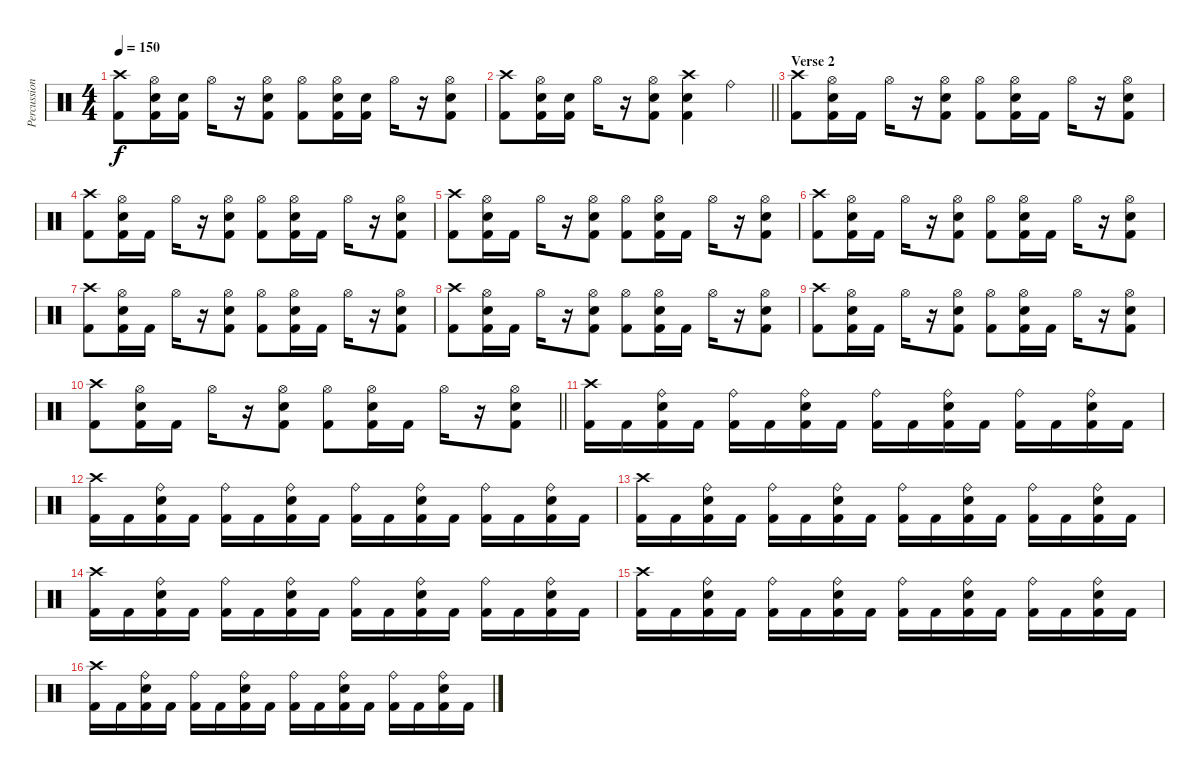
\track ("Percussion" "Percussion") {instrument percussion}
\staff {score}
\articulation defaults
\ts (4 4)
\section ("" "")
\tempo 150
\clef neutral
\ks c
("Crash high (hit)" "Kick (hit) 2").8{dy f} ("Hi-Hat (open)" "Snare (hit) 2" "Kick (hit) 2").16 ("Snare (hit) 2" "Kick (hit) 2").16 "Hi-Hat (open)".16 r.16 ("Hi-Hat (open)" "Snare (hit) 2" "Kick (hit) 2").8 ("Hi-Hat (open)" "Kick (hit) 2").8 ("Hi-Hat (open)" "Snare (hit) 2" "Kick (hit) 2").16 ("Snare (hit) 2" "Kick (hit) 2").16 "Hi-Hat (open)".16 r.16 ("Hi-Hat (open)" "Snare (hit) 2" "Kick (hit) 2").8 |
\barLineRight lightlight
("Crash high (hit)" "Kick (hit) 2").8 ("Hi-Hat (open)" "Snare (hit) 2" "Kick (hit) 2").16 ("Snare (hit) 2" "Kick (hit) 2").16 "Hi-Hat (open)".16 r.16 ("Hi-Hat (open)" "Snare (hit) 2" "Kick (hit) 2").8 ("Crash high (hit)" "Snare (hit) 2" "Kick (hit) 2").4 "Ride (bell)".4 |
\section ("" "Verse 2")
("Crash high (hit)" "Kick (hit) 2").8 ("Hi-Hat (open)" "Snare (hit) 2" "Kick (hit) 2").16 "Kick (hit) 2".16 "Hi-Hat (open)".16 r.16 ("Hi-Hat (open)" "Snare (hit) 2" "Kick (hit) 2").8 ("Hi-Hat (open)" "Kick (hit) 2").8 ("Hi-Hat (open)" "Snare (hit) 2" "Kick (hit) 2").16 "Kick (hit) 2".16 "Hi-Hat (open)".16 r.16 ("Hi-Hat (open)" "Snare (hit) 2" "Kick (hit) 2").8 |
("Crash high (hit)" "Kick (hit) 2").8 ("Hi-Hat (open)" "Snare (hit) 2" "Kick (hit) 2").16 "Kick (hit) 2".16 "Hi-Hat (open)".16 r.16 ("Hi-Hat (open)" "Snare (hit) 2" "Kick (hit) 2").8 ("Hi-Hat (open)" "Kick (hit) 2").8 ("Hi-Hat (open)" "Snare (hit) 2" "Kick (hit) 2").16 "Kick (hit) 2".16 "Hi-Hat (open)".16 r.16 ("Hi-Hat (open)" "Snare (hit) 2" "Kick (hit) 2").8 |
("Crash high (hit)" "Kick (hit) 2").8 ("Hi-Hat (open)" "Snare (hit) 2" "Kick (hit) 2").16 "Kick (hit) 2".16 "Hi-Hat (open)".16 r.16 ("Hi-Hat (open)" "Snare (hit) 2" "Kick (hit) 2").8 ("Hi-Hat (open)" "Kick (hit) 2").8 ("Hi-Hat (open)" "Snare (hit) 2" "Kick (hit) 2").16 "Kick (hit) 2".16 "Hi-Hat (open)".16 r.16 ("Hi-Hat (open)" "Snare (hit) 2" "Kick (hit) 2").8 |
("Crash high (hit)" "Kick (hit) 2").8 ("Hi-Hat (open)" "Snare (hit) 2" "Kick (hit) 2").16 "Kick (hit) 2".16 "Hi-Hat (open)".16 r.16 ("Hi-Hat (open)" "Snare (hit) 2" "Kick (hit) 2").8 ("Hi-Hat (open)" "Kick (hit) 2").8 ("Hi-Hat (open)" "Snare (hit) 2" "Kick (hit) 2").16 "Kick (hit) 2".16 "Hi-Hat (open)".16 r.16 ("Hi-Hat (open)" "Snare (hit) 2" "Kick (hit) 2").8 |
("Crash high (hit)" "Kick (hit) 2").8 ("Hi-Hat (open)" "Snare (hit) 2" "Kick (hit) 2").16 "Kick (hit) 2".16 "Hi-Hat (open)".16 r.16 ("Hi-Hat (open)" "Snare (hit) 2" "Kick (hit) 2").8 ("Hi-Hat (open)" "Kick (hit) 2").8 ("Hi-Hat (open)" "Snare (hit) 2" "Kick (hit) 2").16 "Kick (hit) 2".16 "Hi-Hat (open)".16 r.16 ("Hi-Hat (open)" "Snare (hit) 2" "Kick (hit) 2").8 |
("Crash high (hit)" "Kick (hit) 2").8 ("Hi-Hat (open)" "Snare (hit) 2" "Kick (hit) 2").16 "Kick (hit) 2".16 "Hi-Hat (open)".16 r.16 ("Hi-Hat (open)" "Snare (hit) 2" "Kick (hit) 2").8 ("Hi-Hat (open)" "Kick (hit) 2").8 ("Hi-Hat (open)" "Snare (hit) 2" "Kick (hit) 2").16 "Kick (hit) 2".16 "Hi-Hat (open)".16 r.16 ("Hi-Hat (open)" "Snare (hit) 2" "Kick (hit) 2").8 |
("Crash high (hit)" "Kick (hit) 2").8 ("Hi-Hat (open)" "Snare (hit) 2" "Kick (hit) 2").16 "Kick (hit) 2".16 "Hi-Hat (open)".16 r.16 ("Hi-Hat (open)" "Snare (hit) 2" "Kick (hit) 2").8 ("Hi-Hat (open)" "Kick (hit) 2").8 ("Hi-Hat (open)" "Snare (hit) 2" "Kick (hit) 2").16 "Kick (hit) 2".16 "Hi-Hat (open)".16 r.16 ("Hi-Hat (open)" "Snare (hit) 2" "Kick (hit) 2").8 |
\barLineRight lightlight
("Crash high (hit)" "Kick (hit) 2").8 ("Hi-Hat (open)" "Snare (hit) 2" "Kick (hit) 2").16 "Kick (hit) 2".16 "Hi-Hat (open)".16 r.16 ("Hi-Hat (open)" "Snare (hit) 2" "Kick (hit) 2").8 ("Hi-Hat (open)" "Kick (hit) 2").8 ("Hi-Hat (open)" "Snare (hit) 2" "Kick (hit) 2").16 "Kick (hit) 2".16 "Hi-Hat (open)".16 r.16 ("Hi-Hat (open)" "Snare (hit) 2" "Kick (hit) 2").8 |
\section ("" "")
("Crash high (hit)" "Kick (hit) 2").16 "Kick (hit) 2".16 ("Ride (bell)" "Snare (hit) 2" "Kick (hit) 2").16 "Kick (hit) 2".16 ("Ride (bell)" "Kick (hit) 2").16 "Kick (hit) 2".16 ("Ride (bell)" "Snare (hit) 2" "Kick (hit) 2").16 "Kick (hit) 2".16 ("Ride (bell)" "Kick (hit) 2").16 "Kick (hit) 2".16 ("Ride (bell)" "Snare (hit) 2" "Kick (hit) 2").16 "Kick (hit) 2".16 ("Ride (bell)" "Kick (hit) 2").16 "Kick (hit) 2".16 ("Ride (bell)" "Snare (hit) 2" "Kick (hit) 2").16 "Kick (hit) 2".16 |
("Crash high (hit)" "Kick (hit) 2").16 "Kick (hit) 2".16 ("Ride (bell)" "Snare (hit) 2" "Kick (hit) 2").16 "Kick (hit) 2".16 ("Ride (bell)" "Kick (hit) 2").16 "Kick (hit) 2".16 ("Ride (bell)" "Snare (hit) 2" "Kick (hit) 2").16 "Kick (hit) 2".16 ("Ride (bell)" "Kick (hit) 2").16 "Kick (hit) 2".16 ("Ride (bell)" "Snare (hit) 2" "Kick (hit) 2").16 "Kick (hit) 2".16 ("Ride (bell)" "Kick (hit) 2").16 "Kick (hit) 2".16 ("Ride (bell)" "Snare (hit) 2" "Kick (hit) 2").16 "Kick (hit) 2".16 |
("Crash high (hit)" "Kick (hit) 2").16 "Kick (hit) 2".16 ("Ride (bell)" "Snare (hit) 2" "Kick (hit) 2").16 "Kick (hit) 2".16 ("Ride (bell)" "Kick (hit) 2").16 "Kick (hit) 2".16 ("Ride (bell)" "Snare (hit) 2" "Kick (hit) 2").16 "Kick (hit) 2".16 ("Ride (bell)" "Kick (hit) 2").16 "Kick (hit) 2".16 ("Ride (bell)" "Snare (hit) 2" "Kick (hit) 2").16 "Kick (hit) 2".16 ("Ride (bell)" "Kick (hit) 2").16 "Kick (hit) 2".16 ("Ride (bell)" "Snare (hit) 2" "Kick (hit) 2").16 "Kick (hit) 2".16 |
("Crash high (hit)" "Kick (hit) 2").16 "Kick (hit) 2".16 ("Ride (bell)" "Snare (hit) 2" "Kick (hit) 2").16 "Kick (hit) 2".16 ("Ride (bell)" "Kick (hit) 2").16 "Kick (hit) 2".16 ("Ride (bell)" "Snare (hit) 2" "Kick (hit) 2").16 "Kick (hit) 2".16 ("Ride (bell)" "Kick (hit) 2").16 "Kick (hit) 2".16 ("Ride (bell)" "Snare (hit) 2" "Kick (hit) 2").16 "Kick (hit) 2".16 ("Ride (bell)" "Kick (hit) 2").16 "Kick (hit) 2".16 ("Ride (bell)" "Snare (hit) 2" "Kick (hit) 2").16 "Kick (hit) 2".16 |
("Crash high (hit)" "Kick (hit) 2").16 "Kick (hit) 2".16 ("Ride (bell)" "Snare (hit) 2" "Kick (hit) 2").16 "Kick (hit) 2".16 ("Ride (bell)" "Kick (hit) 2").16 "Kick (hit) 2".16 ("Ride (bell)" "Snare (hit) 2" "Kick (hit) 2").16 "Kick (hit) 2".16 ("Ride (bell)" "Kick (hit) 2").16 "Kick (hit) 2".16 ("Ride (bell)" "Snare (hit) 2" "Kick (hit) 2").16 "Kick (hit) 2".16 ("Ride (bell)" "Kick (hit) 2").16 "Kick (hit) 2".16 ("Ride (bell)" "Snare (hit) 2" "Kick (hit) 2").16 "Kick (hit) 2".16 |
("Crash high (hit)" "Kick (hit) 2").16 "Kick (hit) 2".16 ("Ride (bell)" "Snare (hit) 2" "Kick (hit) 2").16 "Kick (hit) 2".16 ("Ride (bell)" "Kick (hit) 2").16 "Kick (hit) 2".16 ("Ride (bell)" "Snare (hit) 2" "Kick (hit) 2").16 "Kick (hit) 2".16 ("Ride (bell)" "Kick (hit) 2").16 "Kick (hit) 2".16 ("Ride (bell)" "Snare (hit) 2" "Kick (hit) 2").16 "Kick (hit) 2".16 ("Ride (bell)" "Kick (hit) 2").16 "Kick (hit) 2".16 ("Ride (bell)" "Snare (hit) 2" "Kick (hit) 2").16 "Kick (hit) 2".16
